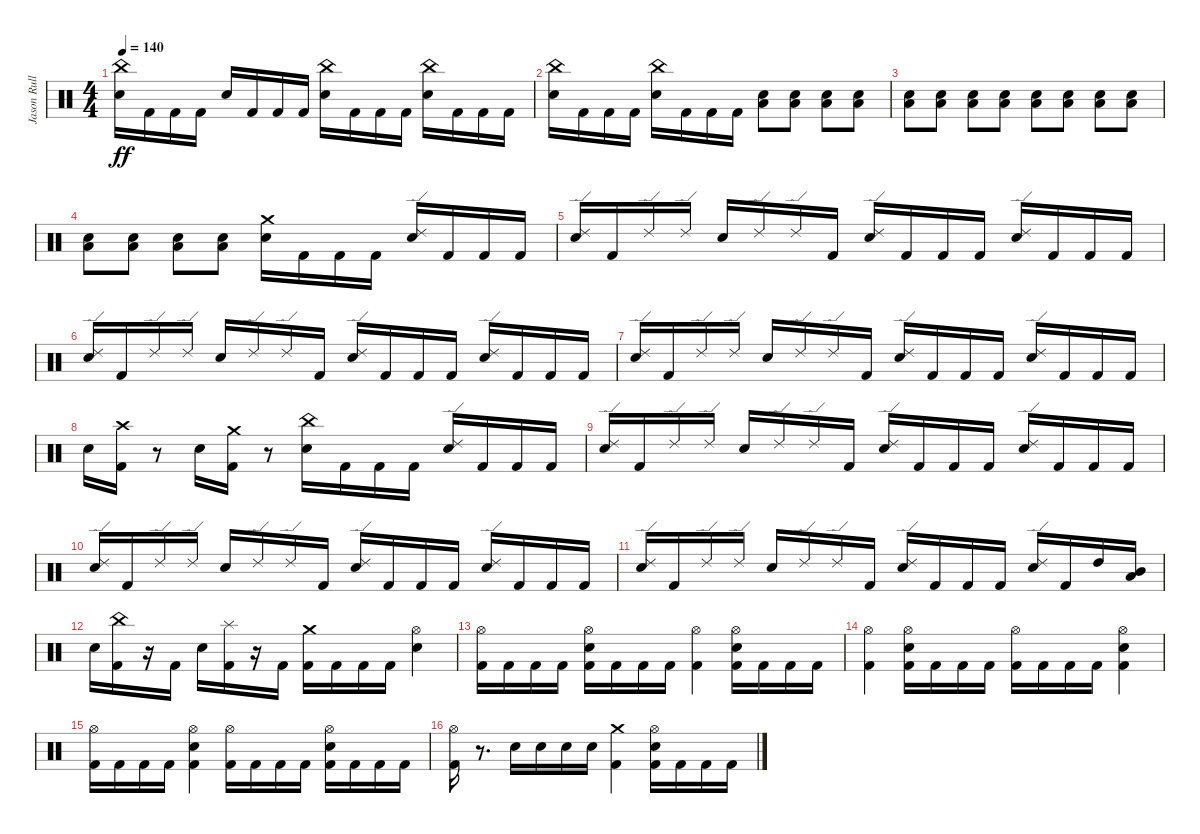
\track ("Jason Rullo" "Jason Rull") {instrument percussion}
\staff {score}
\articulation defaults
\ts (4 4)
\tempo 140
\clef neutral
\ks c
("Electric Snare (hit)" "China (hit)").16{dy ff} "Kick (hit) 2".16 "Kick (hit) 2".16 "Kick (hit) 2".16 "Electric Snare (hit)".16 "Kick (hit) 2".16 "Kick (hit) 2".16 "Kick (hit) 2".16 ("Electric Snare (hit)" "China (hit)").16 "Kick (hit) 2".16 "Kick (hit) 2".16 "Kick (hit) 2".16 ("Electric Snare (hit)" "China (hit)").16 "Kick (hit) 2".16 "Kick (hit) 2".16 "Kick (hit) 2".16 |
("Electric Snare (hit)" "China (hit)").16 "Kick (hit) 2".16 "Kick (hit) 2".16 "Kick (hit) 2".16 ("Electric Snare (hit)" "China (hit)").16 "Kick (hit) 2".16 "Kick (hit) 2".16 "Kick (hit) 2".16 ("Electric Snare (hit)" "Low Tom (hit)").8 ("Electric Snare (hit)" "Low Tom (hit)").8 ("Electric Snare (hit)" "Low Tom (hit)").8 ("Electric Snare (hit)" "Low Tom (hit)").8 |
("Electric Snare (hit)" "Low Tom (hit)").8 ("Electric Snare (hit)" "Low Tom (hit)").8 ("Electric Snare (hit)" "Low Tom (hit)").8 ("Electric Snare (hit)" "Low Tom (hit)").8 ("Electric Snare (hit)" "Low Tom (hit)").8 ("Electric Snare (hit)" "Low Tom (hit)").8 ("Electric Snare (hit)" "Low Tom (hit)").8 ("Electric Snare (hit)" "Low Tom (hit)").8 |
("Electric Snare (hit)" "Low Tom (hit)").8 ("Electric Snare (hit)" "Low Tom (hit)").8 ("Electric Snare (hit)" "Low Tom (hit)").8 ("Electric Snare (hit)" "Low Tom (hit)").8 ("Electric Snare (hit)" "Crash medium (hit)").16 "Kick (hit) 2".16 "Kick (hit) 2".16 "Kick (hit) 2".16 ("Electric Snare (hit)" "Ride (edge) 2").16 "Kick (hit) 2".16 "Kick (hit) 2".16 "Kick (hit) 2".16 |
("Electric Snare (hit)" "Ride (edge) 2").16 "Kick (hit) 2".16 "Ride (edge) 2".16 "Ride (edge) 2".16 "Electric Snare (hit)".16 "Ride (edge) 2".16 "Ride (edge) 2".16 "Kick (hit) 2".16 ("Electric Snare (hit)" "Ride (edge) 2").16 "Kick (hit) 2".16 "Kick (hit) 2".16 "Kick (hit) 2".16 ("Electric Snare (hit)" "Ride (edge) 2").16 "Kick (hit) 2".16 "Kick (hit) 2".16 "Kick (hit) 2".16 |
("Electric Snare (hit)" "Ride (edge) 2").16 "Kick (hit) 2".16 "Ride (edge) 2".16 "Ride (edge) 2".16 "Electric Snare (hit)".16 "Ride (edge) 2".16 "Ride (edge) 2".16 "Kick (hit) 2".16 ("Electric Snare (hit)" "Ride (edge) 2").16 "Kick (hit) 2".16 "Kick (hit) 2".16 "Kick (hit) 2".16 ("Electric Snare (hit)" "Ride (edge) 2").16 "Kick (hit) 2".16 "Kick (hit) 2".16 "Kick (hit) 2".16 |
("Electric Snare (hit)" "Ride (edge) 2").16 "Kick (hit) 2".16 "Ride (edge) 2".16 "Ride (edge) 2".16 "Electric Snare (hit)".16 "Ride (edge) 2".16 "Ride (edge) 2".16 "Kick (hit) 2".16 ("Electric Snare (hit)" "Ride (edge) 2").16 "Kick (hit) 2".16 "Kick (hit) 2".16 "Kick (hit) 2".16 ("Electric Snare (hit)" "Ride (edge) 2").16 "Kick (hit) 2".16 "Kick (hit) 2".16 "Kick (hit) 2".16 |
"Electric Snare (hit)".16 ("Kick (hit) 2" "Crash high (hit)").16 r.8 "Electric Snare (hit)".16 ("Kick (hit) 2" "Crash medium (hit)").16 r.8 ("Electric Snare (hit)" "China (hit)").16 "Kick (hit) 2".16 "Kick (hit) 2".16 "Kick (hit) 2".16 ("Electric Snare (hit)" "Ride (edge) 2").16 "Kick (hit) 2".16 "Kick (hit) 2".16 "Kick (hit) 2".16 |
("Electric Snare (hit)" "Ride (edge) 2").16 "Kick (hit) 2".16 "Ride (edge) 2".16 "Ride (edge) 2".16 "Electric Snare (hit)".16 "Ride (edge) 2".16 "Ride (edge) 2".16 "Kick (hit) 2".16 ("Electric Snare (hit)" "Ride (edge) 2").16 "Kick (hit) 2".16 "Kick (hit) 2".16 "Kick (hit) 2".16 ("Electric Snare (hit)" "Ride (edge) 2").16 "Kick (hit) 2".16 "Kick (hit) 2".16 "Kick (hit) 2".16 |
("Electric Snare (hit)" "Ride (edge) 2").16 "Kick (hit) 2".16 "Ride (edge) 2".16 "Ride (edge) 2".16 "Electric Snare (hit)".16 "Ride (edge) 2".16 "Ride (edge) 2".16 "Kick (hit) 2".16 ("Electric Snare (hit)" "Ride (edge) 2").16 "Kick (hit) 2".16 "Kick (hit) 2".16 "Kick (hit) 2".16 ("Electric Snare (hit)" "Ride (edge) 2").16 "Kick (hit) 2".16 "Kick (hit) 2".16 "Kick (hit) 2".16 |
("Electric Snare (hit)" "Ride (edge) 2").16 "Kick (hit) 2".16 "Ride (edge) 2".16 "Ride (edge) 2".16 "Electric Snare (hit)".16 "Ride (edge) 2".16 "Ride (edge) 2".16 "Kick (hit) 2".16 ("Electric Snare (hit)" "Ride (edge) 2").16 "Kick (hit) 2".16 "Kick (hit) 2".16 "Kick (hit) 2".16 ("Electric Snare (hit)" "Ride (edge) 2").16 "Kick (hit) 2".16 "High Tom (hit)".16 ("Low Tom (hit)" "Mid Tom (hit)").16 |
"Electric Snare (hit)".16 ("China (hit)" "Kick (hit) 2").16 r.16 "Kick (hit) 2".16 "Electric Snare (hit)".16 ("Splash (hit)" "Kick (hit) 2").16 r.16 "Kick (hit) 2".16 ("Crash medium (hit)" "Kick (hit) 2").16 "Kick (hit) 2".16 "Kick (hit) 2".16 "Kick (hit) 2".16 ("Electric Snare (hit)" "Hi-Hat (open)").4 |
("Hi-Hat (open)" "Kick (hit) 2").16 "Kick (hit) 2".16 "Kick (hit) 2".16 "Kick (hit) 2".16 ("Electric Snare (hit)" "Hi-Hat (open)" "Kick (hit) 2").16 "Kick (hit) 2".16 "Kick (hit) 2".16 "Kick (hit) 2".16 ("Hi-Hat (open)" "Kick (hit) 2").4 ("Electric Snare (hit)" "Hi-Hat (open)" "Kick (hit) 2").16 "Kick (hit) 2".16 "Kick (hit) 2".16 "Kick (hit) 2".16 |
("Hi-Hat (open)" "Kick (hit) 2").4 ("Electric Snare (hit)" "Hi-Hat (open)" "Kick (hit) 2").16 "Kick (hit) 2".16 "Kick (hit) 2".16 "Kick (hit) 2".16 ("Hi-Hat (open)" "Kick (hit) 2").16 "Kick (hit) 2".16 "Kick (hit) 2".16 "Kick (hit) 2".16 ("Electric Snare (hit)" "Hi-Hat (open)" "Kick (hit) 2").4 |
("Hi-Hat (open)" "Kick (hit) 2").16 "Kick (hit) 2".16 "Kick (hit) 2".16 "Kick (hit) 2".16 ("Electric Snare (hit)" "Hi-Hat (open)" "Kick (hit) 2").4 ("Hi-Hat (open)" "Kick (hit) 2").16 "Kick (hit) 2".16 "Kick (hit) 2".16 "Kick (hit) 2".16 ("Electric Snare (hit)" "Hi-Hat (open)" "Kick (hit) 2").16 "Kick (hit) 2".16 "Kick (hit) 2".16 "Kick (hit) 2".16 |
("Hi-Hat (open)" "Kick (hit) 2").16 r.8{d} "Electric Snare (hit)".16 "Electric Snare (hit)".16 "Electric Snare (hit)".16 "Electric Snare (hit)".16 ("Crash medium (hit)" "Kick (hit) 2").4 ("Electric Snare (hit)" "Hi-Hat (open)" "Kick (hit) 2").16 "Kick (hit) 2".16 "Kick (hit) 2".16 "Kick (hit) 2".16
